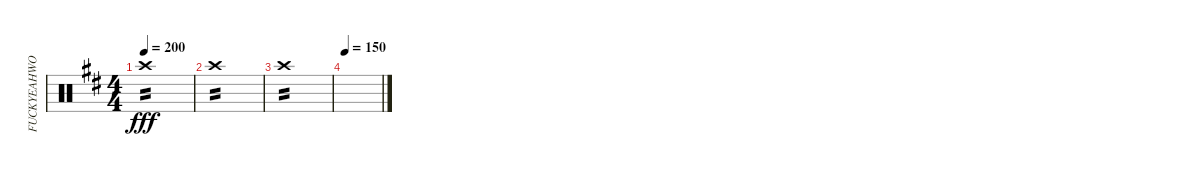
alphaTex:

\track ("FUCKYEAHWOOTDAVEMACKINTOSH!(Percussion)" "FUCKYEAHWO") {instrument percussion}
\staff {score}
\articulation defaults
\ts (4 4)
\tempo 200
\clef neutral
\ks d "Crash high (hit)".1{tp 2 dy fff volume 3}
|
"Crash high (hit)".1{tp 2} |
"Crash high (hit)".1{tp 2} |
\tempo 150
